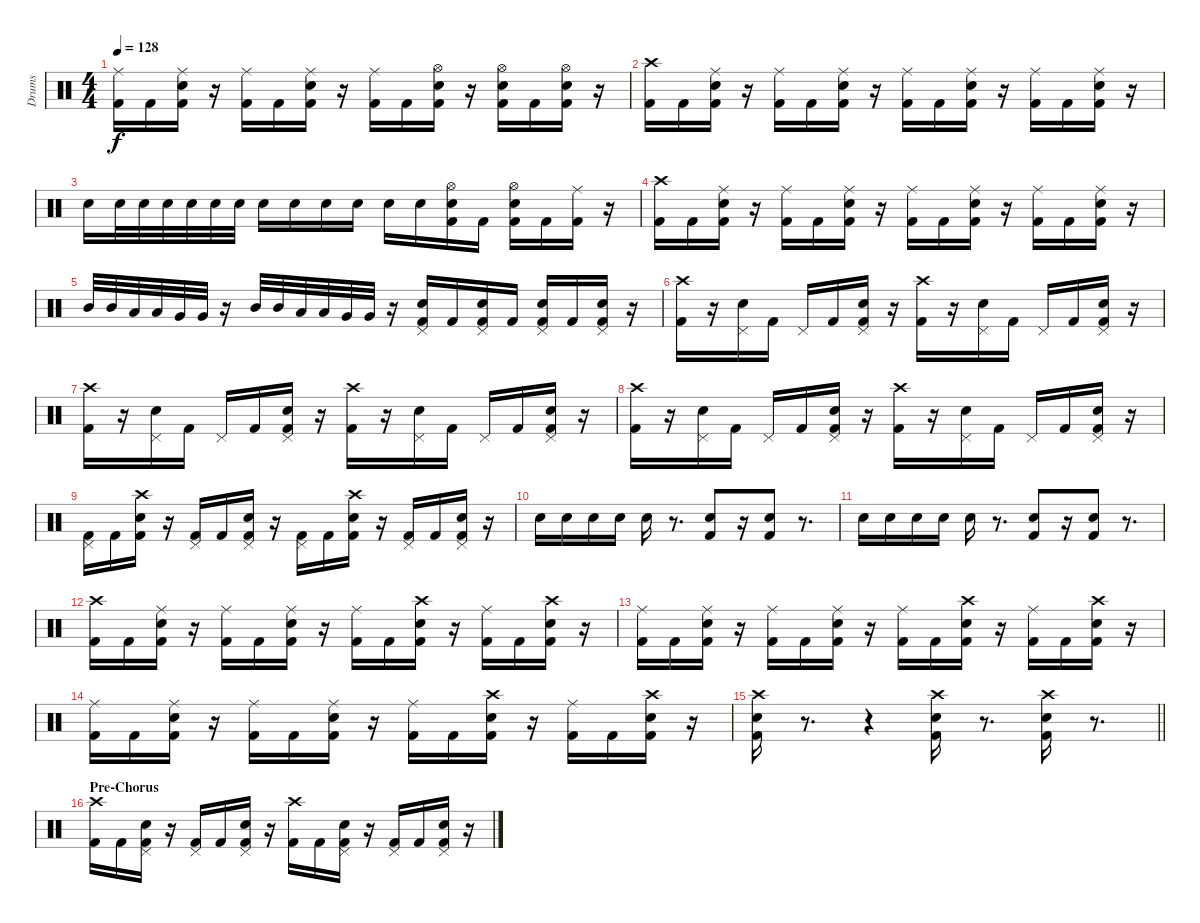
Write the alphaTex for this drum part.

\track ("Drums" "Drums") {instrument percussion}
\staff {score}
\articulation defaults
\ts (4 4)
\tempo 128
\clef neutral
\ks c
("Ride (middle)" "Kick (hit) 2").16{dy f} "Kick (hit) 2".16 ("Ride (middle)" "Snare (hit) 2" "Kick (hit) 2").16 r.16 ("Ride (middle)" "Kick (hit) 2").16 "Kick (hit) 2".16 ("Ride (middle)" "Snare (hit) 2" "Kick (hit) 2").16 r.16 ("Ride (middle)" "Kick (hit) 2").16 "Kick (hit) 2".16 ("Hi-Hat (open)" "Snare (hit) 2" "Kick (hit) 2").16 r.16 ("Hi-Hat (open)" "Snare (hit) 2" "Kick (hit) 2").16 "Kick (hit) 2".16 ("Hi-Hat (open)" "Snare (hit) 2" "Kick (hit) 2").16 r.16 |
("Crash high (hit)" "Kick (hit) 2").16 "Kick (hit) 2".16 ("Ride (middle)" "Snare (hit) 2" "Kick (hit) 2").16 r.16 ("Ride (middle)" "Kick (hit) 2").16 "Kick (hit) 2".16 ("Ride (middle)" "Snare (hit) 2" "Kick (hit) 2").16 r.16 ("Ride (middle)" "Kick (hit) 2").16 "Kick (hit) 2".16 ("Ride (middle)" "Snare (hit) 2" "Kick (hit) 2").16 r.16 ("Ride (middle)" "Kick (hit) 2").16 "Kick (hit) 2".16 ("Ride (middle)" "Snare (hit) 2" "Kick (hit) 2").16 r.16 |
"Snare (hit) 2".16 "Snare (hit) 2".32 "Snare (hit) 2".32 "Snare (hit) 2".32 "Snare (hit) 2".32 "Snare (hit) 2".32 "Snare (hit) 2".32 "Snare (hit) 2".16 "Snare (hit) 2".16 "Snare (hit) 2".16 "Snare (hit) 2".16 "Snare (hit) 2".16 "Snare (hit) 2".16 ("Hi-Hat (open)" "Snare (hit) 2" "Kick (hit) 2").16 "Kick (hit) 2".16 ("Hi-Hat (open)" "Snare (hit) 2" "Kick (hit) 2").16 "Kick (hit) 2".16 ("Ride (middle)" "Kick (hit) 2").16 r.16 |
("Crash high (hit)" "Kick (hit) 2").16 "Kick (hit) 2".16 ("Ride (middle)" "Snare (hit) 2" "Kick (hit) 2").16 r.16 ("Ride (middle)" "Kick (hit) 2").16 "Kick (hit) 2".16 ("Ride (middle)" "Snare (hit) 2" "Kick (hit) 2").16 r.16 ("Ride (middle)" "Kick (hit) 2").16 "Kick (hit) 2".16 ("Ride (middle)" "Snare (hit) 2" "Kick (hit) 2").16 r.16 ("Ride (middle)" "Kick (hit) 2").16 "Kick (hit) 2".16 ("Ride (middle)" "Snare (hit) 2" "Kick (hit) 2").16 r.16 |
"Mid Tom (hit)".32 "Mid Tom (hit)".32 "Low Tom (hit)".32 "Low Tom (hit)".32 "Very Low Tom (hit)".32 "Very Low Tom (hit)".32 r.16 "Mid Tom (hit)".32 "Mid Tom (hit)".32 "Low Tom (hit)".32 "Low Tom (hit)".32 "Very Low Tom (hit)".32 "Very Low Tom (hit)".32 r.16 ("Pedal Hi-Hat (hit)" "Snare (hit) 2" "Kick (hit) 2").16 "Kick (hit) 2".16 ("Pedal Hi-Hat (hit)" "Snare (hit) 2" "Kick (hit) 2").16 "Kick (hit) 2".16 ("Pedal Hi-Hat (hit)" "Snare (hit) 2" "Kick (hit) 2").16 "Kick (hit) 2".16 ("Pedal Hi-Hat (hit)" "Snare (hit) 2" "Kick (hit) 2").16 r.16 |
("Crash high (hit)" "Kick (hit) 2").16 r.16 ("Pedal Hi-Hat (hit)" "Snare (hit) 2").16 "Kick (hit) 2".16 "Pedal Hi-Hat (hit)".16 "Kick (hit) 2".16 ("Pedal Hi-Hat (hit)" "Snare (hit) 2" "Kick (hit) 2").16 r.16 ("Crash high (hit)" "Kick (hit) 2").16 r.16 ("Pedal Hi-Hat (hit)" "Snare (hit) 2").16 "Kick (hit) 2".16 "Pedal Hi-Hat (hit)".16 "Kick (hit) 2".16 ("Pedal Hi-Hat (hit)" "Snare (hit) 2" "Kick (hit) 2").16 r.16 |
("Crash high (hit)" "Kick (hit) 2").16 r.16 ("Pedal Hi-Hat (hit)" "Snare (hit) 2").16 "Kick (hit) 2".16 "Pedal Hi-Hat (hit)".16 "Kick (hit) 2".16 ("Pedal Hi-Hat (hit)" "Snare (hit) 2" "Kick (hit) 2").16 r.16 ("Crash high (hit)" "Kick (hit) 2").16 r.16 ("Pedal Hi-Hat (hit)" "Snare (hit) 2").16 "Kick (hit) 2".16 "Pedal Hi-Hat (hit)".16 "Kick (hit) 2".16 ("Pedal Hi-Hat (hit)" "Snare (hit) 2" "Kick (hit) 2").16 r.16 |
("Crash high (hit)" "Kick (hit) 2").16 r.16 ("Pedal Hi-Hat (hit)" "Snare (hit) 2").16 "Kick (hit) 2".16 "Pedal Hi-Hat (hit)".16 "Kick (hit) 2".16 ("Pedal Hi-Hat (hit)" "Snare (hit) 2" "Kick (hit) 2").16 r.16 ("Crash high (hit)" "Kick (hit) 2").16 r.16 ("Pedal Hi-Hat (hit)" "Snare (hit) 2").16 "Kick (hit) 2".16 "Pedal Hi-Hat (hit)".16 "Kick (hit) 2".16 ("Pedal Hi-Hat (hit)" "Snare (hit) 2" "Kick (hit) 2").16 r.16 |
("Pedal Hi-Hat (hit)" "Kick (hit) 2").16 "Kick (hit) 2".16 ("Crash high (hit)" "Snare (hit) 2" "Kick (hit) 2").16 r.16 ("Pedal Hi-Hat (hit)" "Kick (hit) 2").16 "Kick (hit) 2".16 ("Pedal Hi-Hat (hit)" "Snare (hit) 2" "Kick (hit) 2").16 r.16 ("Pedal Hi-Hat (hit)" "Kick (hit) 2").16 "Kick (hit) 2".16 ("Crash high (hit)" "Snare (hit) 2" "Kick (hit) 2").16 r.16 ("Pedal Hi-Hat (hit)" "Kick (hit) 2").16 "Kick (hit) 2".16 ("Pedal Hi-Hat (hit)" "Snare (hit) 2" "Kick (hit) 2").16 r.16 |
"Snare (hit) 2".16 "Snare (hit) 2".16 "Snare (hit) 2".16 "Snare (hit) 2".16 "Snare (hit) 2".16 r.8{d} ("Snare (hit) 2" "Kick (hit) 2").8 r.16 ("Snare (hit) 2" "Kick (hit) 2").8 r.8{d} |
"Snare (hit) 2".16 "Snare (hit) 2".16 "Snare (hit) 2".16 "Snare (hit) 2".16 "Snare (hit) 2".16 r.8{d} ("Snare (hit) 2" "Kick (hit) 2").8 r.16 ("Snare (hit) 2" "Kick (hit) 2").8 r.8{d} |
("Crash high (hit)" "Kick (hit) 2").16 "Kick (hit) 2".16 ("Ride (middle)" "Snare (hit) 2" "Kick (hit) 2").16 r.16 ("Ride (middle)" "Kick (hit) 2").16 "Kick (hit) 2".16 ("Ride (middle)" "Snare (hit) 2" "Kick (hit) 2").16 r.16 ("Ride (middle)" "Kick (hit) 2").16 "Kick (hit) 2".16 ("Crash high (hit)" "Snare (hit) 2" "Kick (hit) 2").16 r.16 ("Ride (middle)" "Kick (hit) 2").16 "Kick (hit) 2".16 ("Crash high (hit)" "Snare (hit) 2" "Kick (hit) 2").16 r.16 |
("Ride (middle)" "Kick (hit) 2").16 "Kick (hit) 2".16 ("Ride (middle)" "Snare (hit) 2" "Kick (hit) 2").16 r.16 ("Ride (middle)" "Kick (hit) 2").16 "Kick (hit) 2".16 ("Ride (middle)" "Snare (hit) 2" "Kick (hit) 2").16 r.16 ("Ride (middle)" "Kick (hit) 2").16 "Kick (hit) 2".16 ("Crash high (hit)" "Snare (hit) 2" "Kick (hit) 2").16 r.16 ("Ride (middle)" "Kick (hit) 2").16 "Kick (hit) 2".16 ("Crash high (hit)" "Snare (hit) 2" "Kick (hit) 2").16 r.16 |
("Ride (middle)" "Kick (hit) 2").16 "Kick (hit) 2".16 ("Ride (middle)" "Snare (hit) 2" "Kick (hit) 2").16 r.16 ("Ride (middle)" "Kick (hit) 2").16 "Kick (hit) 2".16 ("Ride (middle)" "Snare (hit) 2" "Kick (hit) 2").16 r.16 ("Ride (middle)" "Kick (hit) 2").16 "Kick (hit) 2".16 ("Crash high (hit)" "Snare (hit) 2" "Kick (hit) 2").16 r.16 ("Ride (middle)" "Kick (hit) 2").16 "Kick (hit) 2".16 ("Crash high (hit)" "Snare (hit) 2" "Kick (hit) 2").16 r.16 |
\barLineRight lightlight
("Crash high (hit)" "Snare (hit) 2" "Kick (hit) 2").16 r.8{d} r.4 ("Crash high (hit)" "Snare (hit) 2" "Kick (hit) 2").16 r.8{d} ("Crash high (hit)" "Snare (hit) 2" "Kick (hit) 2").16 r.8{d} |
\section ("" "Pre-Chorus")
("Crash high (hit)" "Kick (hit) 2").16 "Kick (hit) 2".16 ("Pedal Hi-Hat (hit)" "Snare (hit) 2" "Kick (hit) 2").16 r.16 ("Pedal Hi-Hat (hit)" "Kick (hit) 2").16 "Kick (hit) 2".16 ("Pedal Hi-Hat (hit)" "Snare (hit) 2" "Kick (hit) 2").16 r.16 ("Crash high (hit)" "Kick (hit) 2").16 "Kick (hit) 2".16 ("Pedal Hi-Hat (hit)" "Snare (hit) 2" "Kick (hit) 2").16 r.16 ("Pedal Hi-Hat (hit)" "Kick (hit) 2").16 "Kick (hit) 2".16 ("Pedal Hi-Hat (hit)" "Snare (hit) 2" "Kick (hit) 2").16 r.16
